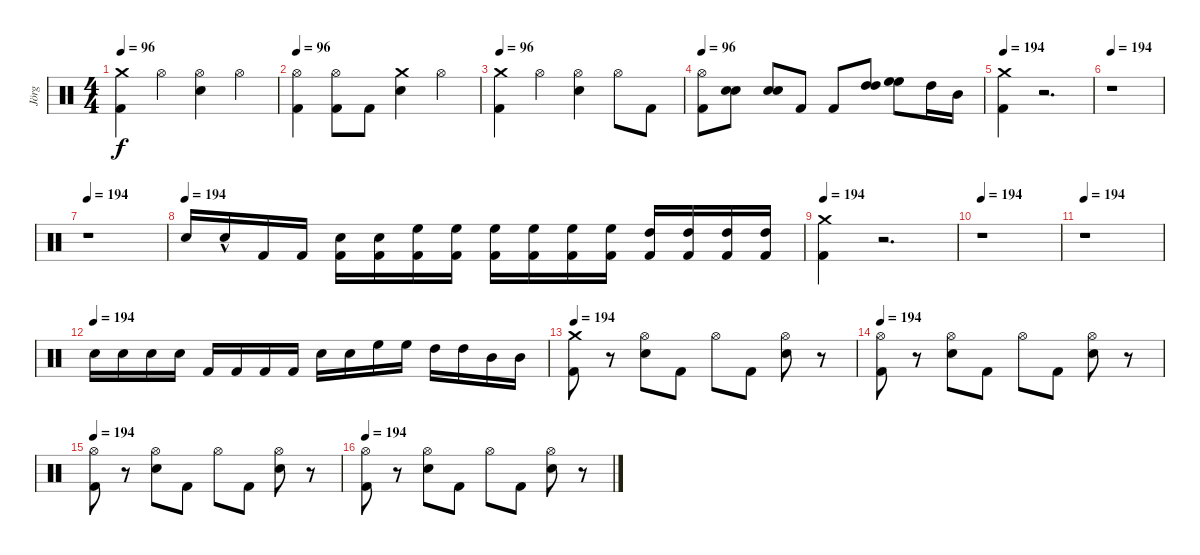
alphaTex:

\track ("Jörg" "Jörg") {instrument percussion}
\staff {score}
\articulation defaults
\ts (4 4)
\tempo 96
\clef neutral
\ks c
("Kick (hit) 2" "Crash medium (hit)").4{dy f} "Hi-Hat (open)".4 ("Snare (hit) 2" "Hi-Hat (open)").4 "Hi-Hat (open)".4 |
\tempo 96
("Kick (hit) 2" "Hi-Hat (open)").4 ("Kick (hit) 2" "Hi-Hat (open)").8 "Kick (hit) 2".8 ("Snare (hit) 2" "Crash medium (hit)").4 "Hi-Hat (open)".4 |
\tempo 96
("Kick (hit) 2" "Crash medium (hit)").4 "Hi-Hat (open)".4 ("Snare (hit) 2" "Hi-Hat (open)").4 "Hi-Hat (open)".8 "Kick (hit) 2".8 |
\tempo 96
("Kick (hit) 2" "Hi-Hat (open)").8 ("Snare (hit) 2" "Snare (hit) 2").8 ("Snare (hit) 2" "Snare (hit) 2").8 "Kick (hit) 2".8 "Kick (hit) 2".8 ("High Tom (hit)" "High Tom (hit)").8 ("High Floor Tom (hit)" "High Floor Tom (hit)").8 "High Tom (hit)".16 "Mid Tom (hit)".16 |
\tempo 194
("Kick (hit) 2" "Crash medium (hit)").4 r.2{d} |
\tempo 194
r.1 |
\tempo 194
r.1 |
\tempo (194)
"Snare (hit) 2".16 "Snare (hit) 2"{hac}.16 "Kick (hit) 2".16 "Kick (hit) 2".16 ("Snare (hit) 2" "Kick (hit) 2").16 ("Snare (hit) 2" "Kick (hit) 2").16 ("High Floor Tom (hit)" "Kick (hit) 2").16 ("High Floor Tom (hit)" "Kick (hit) 2").16 ("High Floor Tom (hit)" "Kick (hit) 2").16 ("High Floor Tom (hit)" "Kick (hit) 2").16 ("High Floor Tom (hit)" "Kick (hit) 2").16 ("High Floor Tom (hit)" "Kick (hit) 2").16 ("High Tom (hit)" "Kick (hit) 2").16 ("High Tom (hit)" "Kick (hit) 2").16 ("High Tom (hit)" "Kick (hit) 2").16 ("High Tom (hit)" "Kick (hit) 2").16 |
\tempo 194
("Crash medium (hit)" "Kick (hit) 2").4 r.2{d} |
\tempo 194
r.1 |
\tempo 194
r.1 |
\tempo (194)
"Snare (hit) 2".16 "Snare (hit) 2".16 "Snare (hit) 2".16 "Snare (hit) 2".16 "Kick (hit) 2".16 "Kick (hit) 2".16 "Kick (hit) 2".16 "Kick (hit) 2".16 "Snare (hit) 2".16 "Snare (hit) 2".16 "High Floor Tom (hit)".16 "High Floor Tom (hit)".16 "High Tom (hit)".16 "High Tom (hit)".16 "Mid Tom (hit)".16 "Mid Tom (hit)".16 |
\tempo 194
("Crash medium (hit)" "Kick (hit) 2").8 r.8 ("Snare (hit) 2" "Hi-Hat (open)").8 "Kick (hit) 2".8 "Hi-Hat (open)".8 "Kick (hit) 2".8 ("Snare (hit) 2" "Hi-Hat (open)").8 r.8 |
\tempo 194
("Hi-Hat (open)" "Kick (hit) 2").8 r.8 ("Snare (hit) 2" "Hi-Hat (open)").8 "Kick (hit) 2".8 "Hi-Hat (open)".8 "Kick (hit) 2".8 ("Snare (hit) 2" "Hi-Hat (open)").8 r.8 |
\tempo 194
("Hi-Hat (open)" "Kick (hit) 2").8 r.8 ("Snare (hit) 2" "Hi-Hat (open)").8 "Kick (hit) 2".8 "Hi-Hat (open)".8 "Kick (hit) 2".8 ("Snare (hit) 2" "Hi-Hat (open)").8 r.8 |
\tempo 194
("Hi-Hat (open)" "Kick (hit) 2").8 r.8 ("Snare (hit) 2" "Hi-Hat (open)").8 "Kick (hit) 2".8 "Hi-Hat (open)".8 "Kick (hit) 2".8 ("Snare (hit) 2" "Hi-Hat (open)").8 r.8
